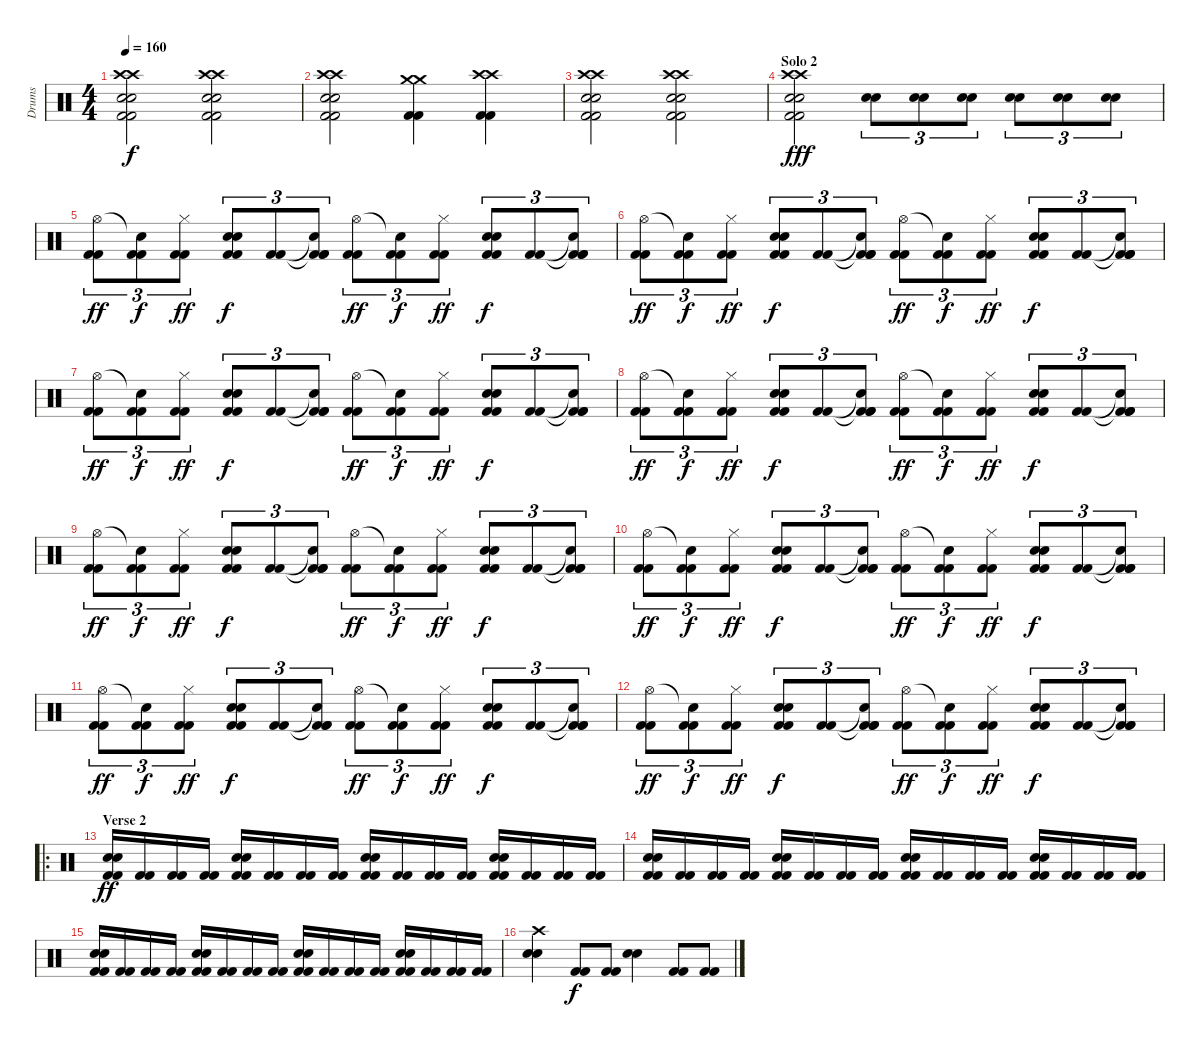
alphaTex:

\track ("Drums" "Drums") {instrument percussion}
\staff {score}
\articulation defaults
\ts (4 4)
\tempo 160
\clef neutral
\ks c
("Crash high (hit)" "Crash high (hit)" "Snare (hit) 2" "Snare (hit) 2" "Kick (hit) 2" "Kick (hit) 2").2{dy f} ("Crash high (hit)" "Crash high (hit)" "Snare (hit) 2" "Snare (hit) 2" "Kick (hit) 2" "Kick (hit) 2").2 |
("Crash high (hit)" "Crash high (hit)" "Snare (hit) 2" "Snare (hit) 2" "Kick (hit) 2" "Kick (hit) 2").2 ("Crash medium (hit)" "Crash medium (hit)" "Kick (hit) 2" "Kick (hit) 2").4 ("Crash high (hit)" "Crash high (hit)" "Kick (hit) 2" "Kick (hit) 2").4 |
("Crash high (hit)" "Crash high (hit)" "Snare (hit) 2" "Snare (hit) 2" "Kick (hit) 2" "Kick (hit) 2").2 ("Crash high (hit)" "Crash high (hit)" "Snare (hit) 2" "Snare (hit) 2" "Kick (hit) 2" "Kick (hit) 2").2 |
\section ("" "Solo 2")
("Crash high (hit)" "Crash high (hit)" "Snare (hit) 2" "Snare (hit) 2" "Kick (hit) 2" "Kick (hit) 2").2{dy fff} ("Snare (hit) 2" "Snare (hit) 2").8{tu (3 2)} ("Snare (hit) 2" "Snare (hit) 2").8{tu (3 2)} ("Snare (hit) 2" "Snare (hit) 2").8{tu (3 2)} ("Snare (hit) 2" "Snare (hit) 2").8{tu (3 2)} ("Snare (hit) 2" "Snare (hit) 2").8{tu (3 2)} ("Snare (hit) 2" "Snare (hit) 2").8{tu (3 2)} |
("Hi-Hat (open)" "Kick (hit) 2" "Kick (hit) 2").8{tu (3 2) dy ff} ("Snare (hit)"{t} "Kick (hit) 2" "Kick (hit) 2").8{tu (3 2) dy f} ("Hi-Hat (closed)" "Kick (hit) 2" "Kick (hit) 2").8{tu (3 2) dy ff} ("Electric Snare (hit)" "Electric Snare (hit)" "Kick (hit) 2" "Kick (hit) 2").8{tu (3 2) dy f} ("Kick (hit) 2" "Kick (hit) 2").8{tu (3 2)} ("Snare (hit)"{t} "Kick (hit) 2"{t} "Kick (hit) 2" "Kick (hit) 2").8{tu (3 2)} ("Hi-Hat (open)" "Kick (hit) 2" "Kick (hit) 2").8{tu (3 2) dy ff} ("Snare (hit)"{t} "Kick (hit) 2" "Kick (hit) 2").8{tu (3 2) dy f} ("Hi-Hat (closed)" "Kick (hit) 2" "Kick (hit) 2").8{tu (3 2) dy ff} ("Electric Snare (hit)" "Electric Snare (hit)" "Kick (hit) 2" "Kick (hit) 2").8{tu (3 2) dy f} ("Kick (hit) 2" "Kick (hit) 2").8{tu (3 2)} ("Snare (hit)"{t} "Kick (hit) 2"{t} "Kick (hit) 2" "Kick (hit) 2").8{tu (3 2)} |
("Hi-Hat (open)" "Kick (hit) 2" "Kick (hit) 2").8{tu (3 2) dy ff} ("Snare (hit)"{t} "Kick (hit) 2" "Kick (hit) 2").8{tu (3 2) dy f} ("Hi-Hat (closed)" "Kick (hit) 2" "Kick (hit) 2").8{tu (3 2) dy ff} ("Electric Snare (hit)" "Electric Snare (hit)" "Kick (hit) 2" "Kick (hit) 2").8{tu (3 2) dy f} ("Kick (hit) 2" "Kick (hit) 2").8{tu (3 2)} ("Snare (hit)"{t} "Kick (hit) 2"{t} "Kick (hit) 2" "Kick (hit) 2").8{tu (3 2)} ("Hi-Hat (open)" "Kick (hit) 2" "Kick (hit) 2").8{tu (3 2) dy ff} ("Snare (hit)"{t} "Kick (hit) 2" "Kick (hit) 2").8{tu (3 2) dy f} ("Hi-Hat (closed)" "Kick (hit) 2" "Kick (hit) 2").8{tu (3 2) dy ff} ("Electric Snare (hit)" "Electric Snare (hit)" "Kick (hit) 2" "Kick (hit) 2").8{tu (3 2) dy f} ("Kick (hit) 2" "Kick (hit) 2").8{tu (3 2)} ("Snare (hit)"{t} "Kick (hit) 2"{t} "Kick (hit) 2" "Kick (hit) 2").8{tu (3 2)} |
("Hi-Hat (open)" "Kick (hit) 2" "Kick (hit) 2").8{tu (3 2) dy ff} ("Snare (hit)"{t} "Kick (hit) 2" "Kick (hit) 2").8{tu (3 2) dy f} ("Hi-Hat (closed)" "Kick (hit) 2" "Kick (hit) 2").8{tu (3 2) dy ff} ("Electric Snare (hit)" "Electric Snare (hit)" "Kick (hit) 2" "Kick (hit) 2").8{tu (3 2) dy f} ("Kick (hit) 2" "Kick (hit) 2").8{tu (3 2)} ("Snare (hit)"{t} "Kick (hit) 2"{t} "Kick (hit) 2" "Kick (hit) 2").8{tu (3 2)} ("Hi-Hat (open)" "Kick (hit) 2" "Kick (hit) 2").8{tu (3 2) dy ff} ("Snare (hit)"{t} "Kick (hit) 2" "Kick (hit) 2").8{tu (3 2) dy f} ("Hi-Hat (closed)" "Kick (hit) 2" "Kick (hit) 2").8{tu (3 2) dy ff} ("Electric Snare (hit)" "Electric Snare (hit)" "Kick (hit) 2" "Kick (hit) 2").8{tu (3 2) dy f} ("Kick (hit) 2" "Kick (hit) 2").8{tu (3 2)} ("Snare (hit)"{t} "Kick (hit) 2"{t} "Kick (hit) 2" "Kick (hit) 2").8{tu (3 2)} |
("Hi-Hat (open)" "Kick (hit) 2" "Kick (hit) 2").8{tu (3 2) dy ff} ("Snare (hit)"{t} "Kick (hit) 2" "Kick (hit) 2").8{tu (3 2) dy f} ("Hi-Hat (closed)" "Kick (hit) 2" "Kick (hit) 2").8{tu (3 2) dy ff} ("Electric Snare (hit)" "Electric Snare (hit)" "Kick (hit) 2" "Kick (hit) 2").8{tu (3 2) dy f} ("Kick (hit) 2" "Kick (hit) 2").8{tu (3 2)} ("Snare (hit)"{t} "Kick (hit) 2"{t} "Kick (hit) 2" "Kick (hit) 2").8{tu (3 2)} ("Hi-Hat (open)" "Kick (hit) 2" "Kick (hit) 2").8{tu (3 2) dy ff} ("Snare (hit)"{t} "Kick (hit) 2" "Kick (hit) 2").8{tu (3 2) dy f} ("Hi-Hat (closed)" "Kick (hit) 2" "Kick (hit) 2").8{tu (3 2) dy ff} ("Electric Snare (hit)" "Electric Snare (hit)" "Kick (hit) 2" "Kick (hit) 2").8{tu (3 2) dy f} ("Kick (hit) 2" "Kick (hit) 2").8{tu (3 2)} ("Snare (hit)"{t} "Kick (hit) 2"{t} "Kick (hit) 2" "Kick (hit) 2").8{tu (3 2)} |
("Hi-Hat (open)" "Kick (hit) 2" "Kick (hit) 2").8{tu (3 2) dy ff} ("Snare (hit)"{t} "Kick (hit) 2" "Kick (hit) 2").8{tu (3 2) dy f} ("Hi-Hat (closed)" "Kick (hit) 2" "Kick (hit) 2").8{tu (3 2) dy ff} ("Electric Snare (hit)" "Electric Snare (hit)" "Kick (hit) 2" "Kick (hit) 2").8{tu (3 2) dy f} ("Kick (hit) 2" "Kick (hit) 2").8{tu (3 2)} ("Snare (hit)"{t} "Kick (hit) 2"{t} "Kick (hit) 2" "Kick (hit) 2").8{tu (3 2)} ("Hi-Hat (open)" "Kick (hit) 2" "Kick (hit) 2").8{tu (3 2) dy ff} ("Snare (hit)"{t} "Kick (hit) 2" "Kick (hit) 2").8{tu (3 2) dy f} ("Hi-Hat (closed)" "Kick (hit) 2" "Kick (hit) 2").8{tu (3 2) dy ff} ("Electric Snare (hit)" "Electric Snare (hit)" "Kick (hit) 2" "Kick (hit) 2").8{tu (3 2) dy f} ("Kick (hit) 2" "Kick (hit) 2").8{tu (3 2)} ("Snare (hit)"{t} "Kick (hit) 2"{t} "Kick (hit) 2" "Kick (hit) 2").8{tu (3 2)} |
("Hi-Hat (open)" "Kick (hit) 2" "Kick (hit) 2").8{tu (3 2) dy ff} ("Snare (hit)"{t} "Kick (hit) 2" "Kick (hit) 2").8{tu (3 2) dy f} ("Hi-Hat (closed)" "Kick (hit) 2" "Kick (hit) 2").8{tu (3 2) dy ff} ("Electric Snare (hit)" "Electric Snare (hit)" "Kick (hit) 2" "Kick (hit) 2").8{tu (3 2) dy f} ("Kick (hit) 2" "Kick (hit) 2").8{tu (3 2)} ("Snare (hit)"{t} "Kick (hit) 2"{t} "Kick (hit) 2" "Kick (hit) 2").8{tu (3 2)} ("Hi-Hat (open)" "Kick (hit) 2" "Kick (hit) 2").8{tu (3 2) dy ff} ("Snare (hit)"{t} "Kick (hit) 2" "Kick (hit) 2").8{tu (3 2) dy f} ("Hi-Hat (closed)" "Kick (hit) 2" "Kick (hit) 2").8{tu (3 2) dy ff} ("Electric Snare (hit)" "Electric Snare (hit)" "Kick (hit) 2" "Kick (hit) 2").8{tu (3 2) dy f} ("Kick (hit) 2" "Kick (hit) 2").8{tu (3 2)} ("Snare (hit)"{t} "Kick (hit) 2"{t} "Kick (hit) 2" "Kick (hit) 2").8{tu (3 2)} |
("Hi-Hat (open)" "Kick (hit) 2" "Kick (hit) 2").8{tu (3 2) dy ff} ("Snare (hit)"{t} "Kick (hit) 2" "Kick (hit) 2").8{tu (3 2) dy f} ("Hi-Hat (closed)" "Kick (hit) 2" "Kick (hit) 2").8{tu (3 2) dy ff} ("Electric Snare (hit)" "Electric Snare (hit)" "Kick (hit) 2" "Kick (hit) 2").8{tu (3 2) dy f} ("Kick (hit) 2" "Kick (hit) 2").8{tu (3 2)} ("Snare (hit)"{t} "Kick (hit) 2"{t} "Kick (hit) 2" "Kick (hit) 2").8{tu (3 2)} ("Hi-Hat (open)" "Kick (hit) 2" "Kick (hit) 2").8{tu (3 2) dy ff} ("Snare (hit)"{t} "Kick (hit) 2" "Kick (hit) 2").8{tu (3 2) dy f} ("Hi-Hat (closed)" "Kick (hit) 2" "Kick (hit) 2").8{tu (3 2) dy ff} ("Electric Snare (hit)" "Electric Snare (hit)" "Kick (hit) 2" "Kick (hit) 2").8{tu (3 2) dy f} ("Kick (hit) 2" "Kick (hit) 2").8{tu (3 2)} ("Snare (hit)"{t} "Kick (hit) 2"{t} "Kick (hit) 2" "Kick (hit) 2").8{tu (3 2)} |
("Hi-Hat (open)" "Kick (hit) 2" "Kick (hit) 2").8{tu (3 2) dy ff} ("Snare (hit)"{t} "Kick (hit) 2" "Kick (hit) 2").8{tu (3 2) dy f} ("Hi-Hat (closed)" "Kick (hit) 2" "Kick (hit) 2").8{tu (3 2) dy ff} ("Electric Snare (hit)" "Electric Snare (hit)" "Kick (hit) 2" "Kick (hit) 2").8{tu (3 2) dy f} ("Kick (hit) 2" "Kick (hit) 2").8{tu (3 2)} ("Snare (hit)"{t} "Kick (hit) 2"{t} "Kick (hit) 2" "Kick (hit) 2").8{tu (3 2)} ("Hi-Hat (open)" "Kick (hit) 2" "Kick (hit) 2").8{tu (3 2) dy ff} ("Snare (hit)"{t} "Kick (hit) 2" "Kick (hit) 2").8{tu (3 2) dy f} ("Hi-Hat (closed)" "Kick (hit) 2" "Kick (hit) 2").8{tu (3 2) dy ff} ("Electric Snare (hit)" "Electric Snare (hit)" "Kick (hit) 2" "Kick (hit) 2").8{tu (3 2) dy f} ("Kick (hit) 2" "Kick (hit) 2").8{tu (3 2)} ("Snare (hit)"{t} "Kick (hit) 2"{t} "Kick (hit) 2" "Kick (hit) 2").8{tu (3 2)} |
\ro
\section ("" "Verse 2")
("Electric Snare (hit)" "Electric Snare (hit)" "Kick (hit) 2" "Kick (hit) 2").16{dy ff} ("Kick (hit) 2" "Kick (hit) 2").16 ("Kick (hit) 2" "Kick (hit) 2").16 ("Kick (hit) 2" "Kick (hit) 2").16 ("Electric Snare (hit)" "Electric Snare (hit)" "Kick (hit) 2" "Kick (hit) 2").16 ("Kick (hit) 2" "Kick (hit) 2").16 ("Kick (hit) 2" "Kick (hit) 2").16 ("Kick (hit) 2" "Kick (hit) 2").16 ("Electric Snare (hit)" "Electric Snare (hit)" "Kick (hit) 2" "Kick (hit) 2").16 ("Kick (hit) 2" "Kick (hit) 2").16 ("Kick (hit) 2" "Kick (hit) 2").16 ("Kick (hit) 2" "Kick (hit) 2").16 ("Electric Snare (hit)" "Electric Snare (hit)" "Kick (hit) 2" "Kick (hit) 2").16 ("Kick (hit) 2" "Kick (hit) 2").16 ("Kick (hit) 2" "Kick (hit) 2").16 ("Kick (hit) 2" "Kick (hit) 2").16 |
("Electric Snare (hit)" "Electric Snare (hit)" "Kick (hit) 2" "Kick (hit) 2").16 ("Kick (hit) 2" "Kick (hit) 2").16 ("Kick (hit) 2" "Kick (hit) 2").16 ("Kick (hit) 2" "Kick (hit) 2").16 ("Electric Snare (hit)" "Electric Snare (hit)" "Kick (hit) 2" "Kick (hit) 2").16 ("Kick (hit) 2" "Kick (hit) 2").16 ("Kick (hit) 2" "Kick (hit) 2").16 ("Kick (hit) 2" "Kick (hit) 2").16 ("Electric Snare (hit)" "Electric Snare (hit)" "Kick (hit) 2" "Kick (hit) 2").16 ("Kick (hit) 2" "Kick (hit) 2").16 ("Kick (hit) 2" "Kick (hit) 2").16 ("Kick (hit) 2" "Kick (hit) 2").16 ("Electric Snare (hit)" "Electric Snare (hit)" "Kick (hit) 2" "Kick (hit) 2").16 ("Kick (hit) 2" "Kick (hit) 2").16 ("Kick (hit) 2" "Kick (hit) 2").16 ("Kick (hit) 2" "Kick (hit) 2").16 |
("Electric Snare (hit)" "Electric Snare (hit)" "Kick (hit) 2" "Kick (hit) 2").16 ("Kick (hit) 2" "Kick (hit) 2").16 ("Kick (hit) 2" "Kick (hit) 2").16 ("Kick (hit) 2" "Kick (hit) 2").16 ("Electric Snare (hit)" "Electric Snare (hit)" "Kick (hit) 2" "Kick (hit) 2").16 ("Kick (hit) 2" "Kick (hit) 2").16 ("Kick (hit) 2" "Kick (hit) 2").16 ("Kick (hit) 2" "Kick (hit) 2").16 ("Electric Snare (hit)" "Electric Snare (hit)" "Kick (hit) 2" "Kick (hit) 2").16 ("Kick (hit) 2" "Kick (hit) 2").16 ("Kick (hit) 2" "Kick (hit) 2").16 ("Kick (hit) 2" "Kick (hit) 2").16 ("Electric Snare (hit)" "Electric Snare (hit)" "Kick (hit) 2" "Kick (hit) 2").16 ("Kick (hit) 2" "Kick (hit) 2").16 ("Kick (hit) 2" "Kick (hit) 2").16 ("Kick (hit) 2" "Kick (hit) 2").16 |
("Crash high (hit)" "Electric Snare (hit)" "Electric Snare (hit)").4 ("Kick (hit) 2" "Kick (hit) 2").8{dy f} ("Kick (hit) 2" "Kick (hit) 2").8 ("Electric Snare (hit)" "Electric Snare (hit)").4 ("Kick (hit) 2" "Kick (hit) 2").8 ("Kick (hit) 2" "Kick (hit) 2").8
